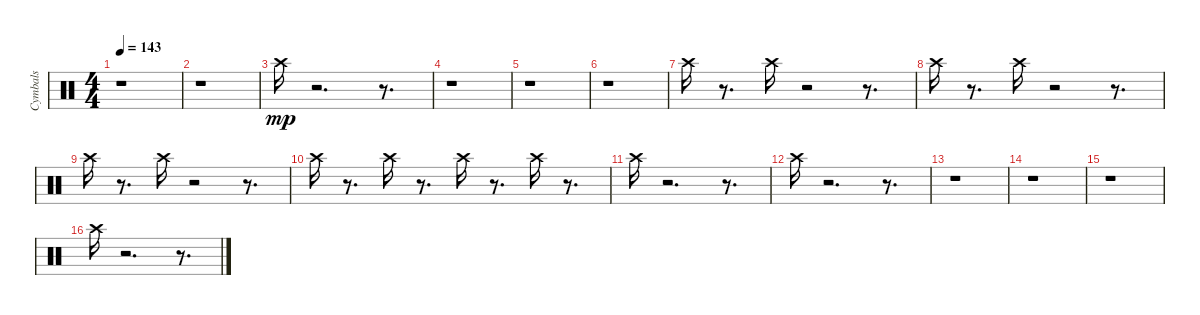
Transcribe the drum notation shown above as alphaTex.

\track ("Cymbals  " "Cymbals  ") {instrument percussion}
\staff {score}
\articulation defaults
\ts (4 4)
\tempo 143
\clef neutral
\ks c
r.1{dy mp} |
r.1 |
"Crash high (hit)".16 r.2{d} r.8{d} |
r.1 |
r.1 |
r.1 |
"Crash high (hit)".16 r.8{d} "Crash high (hit)".16 r.2 r.8{d} |
"Crash high (hit)".16 r.8{d} "Crash high (hit)".16 r.2 r.8{d} |
"Crash high (hit)".16 r.8{d} "Crash high (hit)".16 r.2 r.8{d} |
"Crash high (hit)".16 r.8{d} "Crash high (hit)".16 r.8{d} "Crash high (hit)".16 r.8{d} "Crash high (hit)".16 r.8{d} |
"Crash high (hit)".16 r.2{d} r.8{d} |
"Crash high (hit)".16 r.2{d} r.8{d} |
r.1 |
r.1 |
r.1 |
"Crash high (hit)".16 r.2{d} r.8{d}
